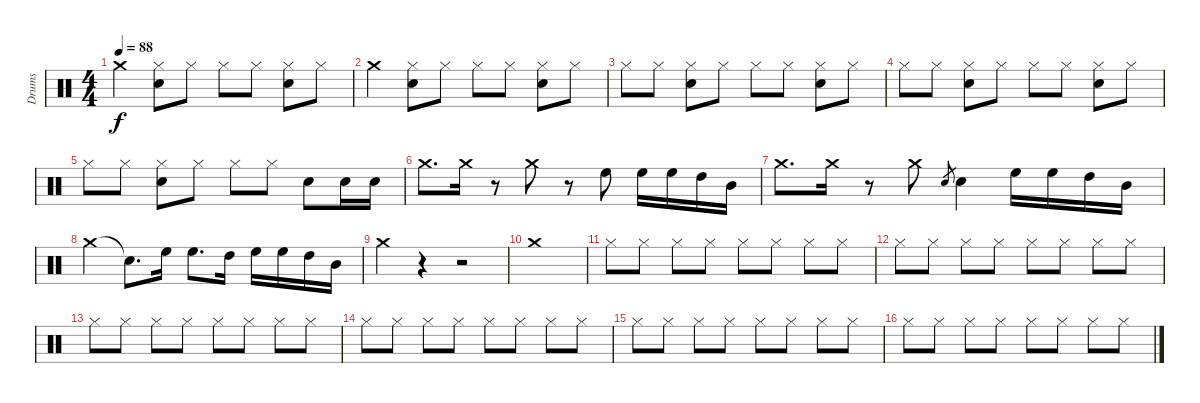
\track ("Drums" "Drums") {instrument percussion}
\staff {score}
\articulation defaults
\ts (4 4)
\tempo 88
\clef neutral
\ks c "Crash medium (hit)".4{dy f}
("Hi-Hat (closed)" "Electric Snare (hit)").8 "Hi-Hat (closed)".8 "Hi-Hat (closed)".8 "Hi-Hat (closed)".8 ("Hi-Hat (closed)" "Electric Snare (hit)").8 "Hi-Hat (closed)".8 |
"Crash medium (hit)".4 ("Hi-Hat (closed)" "Electric Snare (hit)").8 "Hi-Hat (closed)".8 "Hi-Hat (closed)".8 "Hi-Hat (closed)".8 ("Hi-Hat (closed)" "Electric Snare (hit)").8 "Hi-Hat (closed)".8 |
"Hi-Hat (closed)".8 "Hi-Hat (closed)".8 ("Hi-Hat (closed)" "Electric Snare (hit)").8 "Hi-Hat (closed)".8 "Hi-Hat (closed)".8 "Hi-Hat (closed)".8 ("Hi-Hat (closed)" "Electric Snare (hit)").8 "Hi-Hat (closed)".8 |
"Hi-Hat (closed)".8 "Hi-Hat (closed)".8 ("Hi-Hat (closed)" "Electric Snare (hit)").8 "Hi-Hat (closed)".8 "Hi-Hat (closed)".8 "Hi-Hat (closed)".8 ("Hi-Hat (closed)" "Electric Snare (hit)").8 "Hi-Hat (closed)".8 |
"Hi-Hat (closed)".8 "Hi-Hat (closed)".8 ("Hi-Hat (closed)" "Electric Snare (hit)").8 "Hi-Hat (closed)".8 "Hi-Hat (closed)".8 "Hi-Hat (closed)".8 "Electric Snare (hit)".8 "Electric Snare (hit)".16 "Electric Snare (hit)".16 |
"Crash medium (hit)".8{d} "Crash medium (hit)".16 r.8 "Crash medium (hit)".8 r.8 "High Floor Tom (hit)".8 "High Floor Tom (hit)".16 "High Floor Tom (hit)".16 "High Tom (hit)".16 "Mid Tom (hit)".16 |
"Crash medium (hit)".8{d} "Crash medium (hit)".16 r.8 "Crash medium (hit)".8 "Electric Snare (hit)".8{gr} "Electric Snare (hit)".4 "High Floor Tom (hit)".16 "High Floor Tom (hit)".16 "High Tom (hit)".16 "Mid Tom (hit)".16 |
"Crash medium (hit)".4 "Snare (hit)"{t}.8{d} "High Floor Tom (hit)".16 "High Floor Tom (hit)".8{d} "High Tom (hit)".16 "High Floor Tom (hit)".16 "High Floor Tom (hit)".16 "High Tom (hit)".16 "Mid Tom (hit)".16 |
"Crash medium (hit)".4 r.4 r.2 |
"Crash medium (hit)".1 |
"Hi-Hat (closed)".8 "Hi-Hat (closed)".8 "Hi-Hat (closed)".8 "Hi-Hat (closed)".8 "Hi-Hat (closed)".8 "Hi-Hat (closed)".8 "Hi-Hat (closed)".8 "Hi-Hat (closed)".8 |
"Hi-Hat (closed)".8 "Hi-Hat (closed)".8 "Hi-Hat (closed)".8 "Hi-Hat (closed)".8 "Hi-Hat (closed)".8 "Hi-Hat (closed)".8 "Hi-Hat (closed)".8 "Hi-Hat (closed)".8 |
"Hi-Hat (closed)".8 "Hi-Hat (closed)".8 "Hi-Hat (closed)".8 "Hi-Hat (closed)".8 "Hi-Hat (closed)".8 "Hi-Hat (closed)".8 "Hi-Hat (closed)".8 "Hi-Hat (closed)".8 |
"Hi-Hat (closed)".8 "Hi-Hat (closed)".8 "Hi-Hat (closed)".8 "Hi-Hat (closed)".8 "Hi-Hat (closed)".8 "Hi-Hat (closed)".8 "Hi-Hat (closed)".8 "Hi-Hat (closed)".8 |
"Hi-Hat (closed)".8 "Hi-Hat (closed)".8 "Hi-Hat (closed)".8 "Hi-Hat (closed)".8 "Hi-Hat (closed)".8 "Hi-Hat (closed)".8 "Hi-Hat (closed)".8 "Hi-Hat (closed)".8 |
"Hi-Hat (closed)".8 "Hi-Hat (closed)".8 "Hi-Hat (closed)".8 "Hi-Hat (closed)".8 "Hi-Hat (closed)".8 "Hi-Hat (closed)".8 "Hi-Hat (closed)".8 "Hi-Hat (closed)".8
